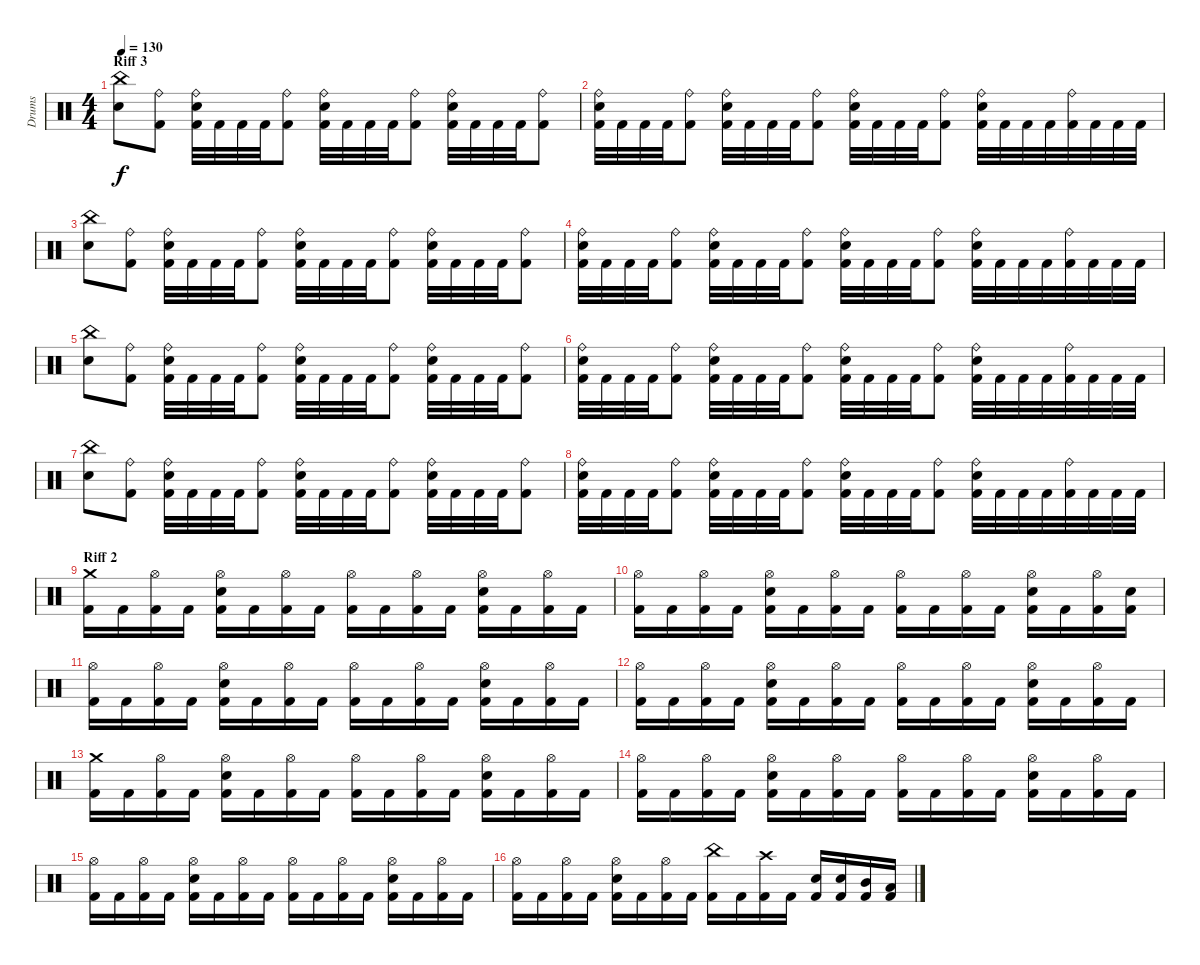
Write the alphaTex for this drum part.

\track ("Drums" "Drums") {instrument percussion}
\staff {score}
\articulation defaults
\ts (4 4)
\section ("" "Riff 3")
\tempo 130
\clef neutral
\ks c
("Snare (hit) 2" "China (hit)").8{dy f} ("Kick (hit) 2" "Ride (bell)").8 ("Kick (hit) 2" "Snare (hit) 2" "Ride (bell)").32 "Kick (hit) 2".32 "Kick (hit) 2".32 "Kick (hit) 2".32 ("Kick (hit) 2" "Ride (bell)").8 ("Kick (hit) 2" "Snare (hit) 2" "Ride (bell)").32 "Kick (hit) 2".32 "Kick (hit) 2".32 "Kick (hit) 2".32 ("Kick (hit) 2" "Ride (bell)").8 ("Kick (hit) 2" "Snare (hit) 2" "Ride (bell)").32 "Kick (hit) 2".32 "Kick (hit) 2".32 "Kick (hit) 2".32 ("Kick (hit) 2" "Ride (bell)").8 |
("Kick (hit) 2" "Snare (hit) 2" "Ride (bell)").32 "Kick (hit) 2".32 "Kick (hit) 2".32 "Kick (hit) 2".32 ("Kick (hit) 2" "Ride (bell)").8 ("Kick (hit) 2" "Snare (hit) 2" "Ride (bell)").32 "Kick (hit) 2".32 "Kick (hit) 2".32 "Kick (hit) 2".32 ("Kick (hit) 2" "Ride (bell)").8 ("Kick (hit) 2" "Snare (hit) 2" "Ride (bell)").32 "Kick (hit) 2".32 "Kick (hit) 2".32 "Kick (hit) 2".32 ("Kick (hit) 2" "Ride (bell)").8 ("Kick (hit) 2" "Snare (hit) 2" "Ride (bell)").32 "Kick (hit) 2".32 "Kick (hit) 2".32 "Kick (hit) 2".32 ("Kick (hit) 2" "Ride (bell)").32 "Kick (hit) 2".32 "Kick (hit) 2".32 "Kick (hit) 2".32 |
("Snare (hit) 2" "China (hit)").8 ("Kick (hit) 2" "Ride (bell)").8 ("Kick (hit) 2" "Snare (hit) 2" "Ride (bell)").32 "Kick (hit) 2".32 "Kick (hit) 2".32 "Kick (hit) 2".32 ("Kick (hit) 2" "Ride (bell)").8 ("Kick (hit) 2" "Snare (hit) 2" "Ride (bell)").32 "Kick (hit) 2".32 "Kick (hit) 2".32 "Kick (hit) 2".32 ("Kick (hit) 2" "Ride (bell)").8 ("Kick (hit) 2" "Snare (hit) 2" "Ride (bell)").32 "Kick (hit) 2".32 "Kick (hit) 2".32 "Kick (hit) 2".32 ("Kick (hit) 2" "Ride (bell)").8 |
("Kick (hit) 2" "Snare (hit) 2" "Ride (bell)").32 "Kick (hit) 2".32 "Kick (hit) 2".32 "Kick (hit) 2".32 ("Kick (hit) 2" "Ride (bell)").8 ("Kick (hit) 2" "Snare (hit) 2" "Ride (bell)").32 "Kick (hit) 2".32 "Kick (hit) 2".32 "Kick (hit) 2".32 ("Kick (hit) 2" "Ride (bell)").8 ("Kick (hit) 2" "Snare (hit) 2" "Ride (bell)").32 "Kick (hit) 2".32 "Kick (hit) 2".32 "Kick (hit) 2".32 ("Kick (hit) 2" "Ride (bell)").8 ("Kick (hit) 2" "Snare (hit) 2" "Ride (bell)").32 "Kick (hit) 2".32 "Kick (hit) 2".32 "Kick (hit) 2".32 ("Kick (hit) 2" "Ride (bell)").32 "Kick (hit) 2".32 "Kick (hit) 2".32 "Kick (hit) 2".32 |
("Snare (hit) 2" "China (hit)").8 ("Kick (hit) 2" "Ride (bell)").8 ("Kick (hit) 2" "Snare (hit) 2" "Ride (bell)").32 "Kick (hit) 2".32 "Kick (hit) 2".32 "Kick (hit) 2".32 ("Kick (hit) 2" "Ride (bell)").8 ("Kick (hit) 2" "Snare (hit) 2" "Ride (bell)").32 "Kick (hit) 2".32 "Kick (hit) 2".32 "Kick (hit) 2".32 ("Kick (hit) 2" "Ride (bell)").8 ("Kick (hit) 2" "Snare (hit) 2" "Ride (bell)").32 "Kick (hit) 2".32 "Kick (hit) 2".32 "Kick (hit) 2".32 ("Kick (hit) 2" "Ride (bell)").8 |
("Kick (hit) 2" "Snare (hit) 2" "Ride (bell)").32 "Kick (hit) 2".32 "Kick (hit) 2".32 "Kick (hit) 2".32 ("Kick (hit) 2" "Ride (bell)").8 ("Kick (hit) 2" "Snare (hit) 2" "Ride (bell)").32 "Kick (hit) 2".32 "Kick (hit) 2".32 "Kick (hit) 2".32 ("Kick (hit) 2" "Ride (bell)").8 ("Kick (hit) 2" "Snare (hit) 2" "Ride (bell)").32 "Kick (hit) 2".32 "Kick (hit) 2".32 "Kick (hit) 2".32 ("Kick (hit) 2" "Ride (bell)").8 ("Kick (hit) 2" "Snare (hit) 2" "Ride (bell)").32 "Kick (hit) 2".32 "Kick (hit) 2".32 "Kick (hit) 2".32 ("Kick (hit) 2" "Ride (bell)").32 "Kick (hit) 2".32 "Kick (hit) 2".32 "Kick (hit) 2".32 |
("Snare (hit) 2" "China (hit)").8 ("Kick (hit) 2" "Ride (bell)").8 ("Kick (hit) 2" "Snare (hit) 2" "Ride (bell)").32 "Kick (hit) 2".32 "Kick (hit) 2".32 "Kick (hit) 2".32 ("Kick (hit) 2" "Ride (bell)").8 ("Kick (hit) 2" "Snare (hit) 2" "Ride (bell)").32 "Kick (hit) 2".32 "Kick (hit) 2".32 "Kick (hit) 2".32 ("Kick (hit) 2" "Ride (bell)").8 ("Kick (hit) 2" "Snare (hit) 2" "Ride (bell)").32 "Kick (hit) 2".32 "Kick (hit) 2".32 "Kick (hit) 2".32 ("Kick (hit) 2" "Ride (bell)").8 |
("Kick (hit) 2" "Snare (hit) 2" "Ride (bell)").32 "Kick (hit) 2".32 "Kick (hit) 2".32 "Kick (hit) 2".32 ("Kick (hit) 2" "Ride (bell)").8 ("Kick (hit) 2" "Snare (hit) 2" "Ride (bell)").32 "Kick (hit) 2".32 "Kick (hit) 2".32 "Kick (hit) 2".32 ("Kick (hit) 2" "Ride (bell)").8 ("Kick (hit) 2" "Snare (hit) 2" "Ride (bell)").32 "Kick (hit) 2".32 "Kick (hit) 2".32 "Kick (hit) 2".32 ("Kick (hit) 2" "Ride (bell)").8 ("Kick (hit) 2" "Snare (hit) 2" "Ride (bell)").32 "Kick (hit) 2".32 "Kick (hit) 2".32 "Kick (hit) 2".32 ("Kick (hit) 2" "Ride (bell)").32 "Kick (hit) 2".32 "Kick (hit) 2".32 "Kick (hit) 2".32 |
\section ("" "Riff 2")
("Kick (hit) 2" "Crash medium (hit)").16 "Kick (hit) 2".16 ("Kick (hit) 2" "Hi-Hat (open)").16 "Kick (hit) 2".16 ("Kick (hit) 2" "Snare (hit) 2" "Hi-Hat (open)").16 "Kick (hit) 2".16 ("Kick (hit) 2" "Hi-Hat (open)").16 "Kick (hit) 2".16 ("Kick (hit) 2" "Hi-Hat (open)").16 "Kick (hit) 2".16 ("Kick (hit) 2" "Hi-Hat (open)").16 "Kick (hit) 2".16 ("Kick (hit) 2" "Snare (hit) 2" "Hi-Hat (open)").16 "Kick (hit) 2".16 ("Kick (hit) 2" "Hi-Hat (open)").16 "Kick (hit) 2".16 |
("Kick (hit) 2" "Hi-Hat (open)").16 "Kick (hit) 2".16 ("Kick (hit) 2" "Hi-Hat (open)").16 "Kick (hit) 2".16 ("Kick (hit) 2" "Snare (hit) 2" "Hi-Hat (open)").16 "Kick (hit) 2".16 ("Kick (hit) 2" "Hi-Hat (open)").16 "Kick (hit) 2".16 ("Kick (hit) 2" "Hi-Hat (open)").16 "Kick (hit) 2".16 ("Kick (hit) 2" "Hi-Hat (open)").16 "Kick (hit) 2".16 ("Kick (hit) 2" "Snare (hit) 2" "Hi-Hat (open)").16 "Kick (hit) 2".16 ("Kick (hit) 2" "Hi-Hat (open)").16 ("Kick (hit) 2" "Snare (hit) 2").16 |
("Kick (hit) 2" "Hi-Hat (open)").16 "Kick (hit) 2".16 ("Kick (hit) 2" "Hi-Hat (open)").16 "Kick (hit) 2".16 ("Kick (hit) 2" "Snare (hit) 2" "Hi-Hat (open)").16 "Kick (hit) 2".16 ("Kick (hit) 2" "Hi-Hat (open)").16 "Kick (hit) 2".16 ("Kick (hit) 2" "Hi-Hat (open)").16 "Kick (hit) 2".16 ("Kick (hit) 2" "Hi-Hat (open)").16 "Kick (hit) 2".16 ("Kick (hit) 2" "Snare (hit) 2" "Hi-Hat (open)").16 "Kick (hit) 2".16 ("Kick (hit) 2" "Hi-Hat (open)").16 "Kick (hit) 2".16 |
("Kick (hit) 2" "Hi-Hat (open)").16 "Kick (hit) 2".16 ("Kick (hit) 2" "Hi-Hat (open)").16 "Kick (hit) 2".16 ("Kick (hit) 2" "Snare (hit) 2" "Hi-Hat (open)").16 "Kick (hit) 2".16 ("Kick (hit) 2" "Hi-Hat (open)").16 "Kick (hit) 2".16 ("Kick (hit) 2" "Hi-Hat (open)").16 "Kick (hit) 2".16 ("Kick (hit) 2" "Hi-Hat (open)").16 "Kick (hit) 2".16 ("Kick (hit) 2" "Snare (hit) 2" "Hi-Hat (open)").16 "Kick (hit) 2".16 ("Kick (hit) 2" "Hi-Hat (open)").16 "Kick (hit) 2".16 |
("Kick (hit) 2" "Crash medium (hit)").16 "Kick (hit) 2".16 ("Kick (hit) 2" "Hi-Hat (open)").16 "Kick (hit) 2".16 ("Kick (hit) 2" "Snare (hit) 2" "Hi-Hat (open)").16 "Kick (hit) 2".16 ("Kick (hit) 2" "Hi-Hat (open)").16 "Kick (hit) 2".16 ("Kick (hit) 2" "Hi-Hat (open)").16 "Kick (hit) 2".16 ("Kick (hit) 2" "Hi-Hat (open)").16 "Kick (hit) 2".16 ("Kick (hit) 2" "Snare (hit) 2" "Hi-Hat (open)").16 "Kick (hit) 2".16 ("Kick (hit) 2" "Hi-Hat (open)").16 "Kick (hit) 2".16 |
("Kick (hit) 2" "Hi-Hat (open)").16 "Kick (hit) 2".16 ("Kick (hit) 2" "Hi-Hat (open)").16 "Kick (hit) 2".16 ("Kick (hit) 2" "Snare (hit) 2" "Hi-Hat (open)").16 "Kick (hit) 2".16 ("Kick (hit) 2" "Hi-Hat (open)").16 "Kick (hit) 2".16 ("Kick (hit) 2" "Hi-Hat (open)").16 "Kick (hit) 2".16 ("Kick (hit) 2" "Hi-Hat (open)").16 "Kick (hit) 2".16 ("Kick (hit) 2" "Snare (hit) 2" "Hi-Hat (open)").16 "Kick (hit) 2".16 ("Kick (hit) 2" "Hi-Hat (open)").16 "Kick (hit) 2".16 |
("Kick (hit) 2" "Hi-Hat (open)").16 "Kick (hit) 2".16 ("Kick (hit) 2" "Hi-Hat (open)").16 "Kick (hit) 2".16 ("Kick (hit) 2" "Snare (hit) 2" "Hi-Hat (open)").16 "Kick (hit) 2".16 ("Kick (hit) 2" "Hi-Hat (open)").16 "Kick (hit) 2".16 ("Kick (hit) 2" "Hi-Hat (open)").16 "Kick (hit) 2".16 ("Kick (hit) 2" "Hi-Hat (open)").16 "Kick (hit) 2".16 ("Kick (hit) 2" "Snare (hit) 2" "Hi-Hat (open)").16 "Kick (hit) 2".16 ("Kick (hit) 2" "Hi-Hat (open)").16 "Kick (hit) 2".16 |
("Kick (hit) 2" "Hi-Hat (open)").16 "Kick (hit) 2".16 ("Kick (hit) 2" "Hi-Hat (open)").16 "Kick (hit) 2".16 ("Kick (hit) 2" "Snare (hit) 2" "Hi-Hat (open)").16 "Kick (hit) 2".16 ("Kick (hit) 2" "Hi-Hat (open)").16 "Kick (hit) 2".16 ("Kick (hit) 2" "China (hit)").16 "Kick (hit) 2".16 ("Kick (hit) 2" "Crash high (hit)").16 "Kick (hit) 2".16 ("Kick (hit) 2" "Snare (hit) 2").16 ("Kick (hit) 2" "Snare (hit) 2").16 ("Kick (hit) 2" "Mid Tom (hit)").16 ("Kick (hit) 2" "Low Tom (hit)").16
